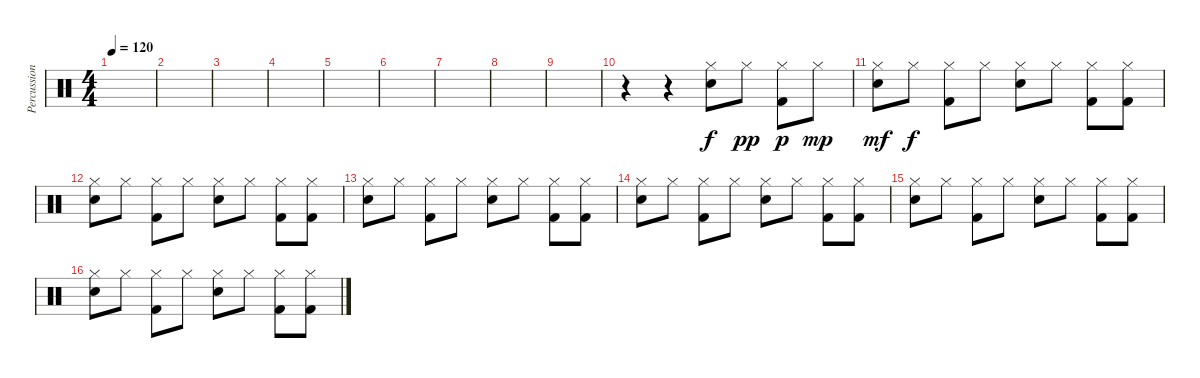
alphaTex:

\track ("Percussion" "Percussion") {instrument percussion}
\staff {score}
\articulation defaults
\ts (4 4)
\tempo 120
\clef neutral
\ks c
|
|
|
|
|
|
|
|
|
r.4 r.4 ("Hi-Hat (closed)" "Snare (hit) 2").8 "Hi-Hat (closed)".8{dy pp} ("Hi-Hat (closed)" "Kick (hit) 2").8{dy p} "Hi-Hat (closed)".8{dy mp} |
("Hi-Hat (closed)" "Snare (hit) 2").8{dy mf} "Hi-Hat (closed)".8{dy f} ("Hi-Hat (closed)" "Kick (hit) 2").8 "Hi-Hat (closed)".8 ("Hi-Hat (closed)" "Snare (hit) 2").8 "Hi-Hat (closed)".8 ("Hi-Hat (closed)" "Kick (hit) 2").8 ("Hi-Hat (closed)" "Kick (hit) 2").8 |
("Hi-Hat (closed)" "Snare (hit) 2").8 "Hi-Hat (closed)".8 ("Hi-Hat (closed)" "Kick (hit) 2").8 "Hi-Hat (closed)".8 ("Hi-Hat (closed)" "Snare (hit) 2").8 "Hi-Hat (closed)".8 ("Hi-Hat (closed)" "Kick (hit) 2").8 ("Hi-Hat (closed)" "Kick (hit) 2").8 |
("Hi-Hat (closed)" "Snare (hit) 2").8 "Hi-Hat (closed)".8 ("Hi-Hat (closed)" "Kick (hit) 2").8 "Hi-Hat (closed)".8 ("Hi-Hat (closed)" "Snare (hit) 2").8 "Hi-Hat (closed)".8 ("Hi-Hat (closed)" "Kick (hit) 2").8 ("Hi-Hat (closed)" "Kick (hit) 2").8 |
("Hi-Hat (closed)" "Snare (hit) 2").8 "Hi-Hat (closed)".8 ("Hi-Hat (closed)" "Kick (hit) 2").8 "Hi-Hat (closed)".8 ("Hi-Hat (closed)" "Snare (hit) 2").8 "Hi-Hat (closed)".8 ("Hi-Hat (closed)" "Kick (hit) 2").8 ("Hi-Hat (closed)" "Kick (hit) 2").8 |
("Hi-Hat (closed)" "Snare (hit) 2").8 "Hi-Hat (closed)".8 ("Hi-Hat (closed)" "Kick (hit) 2").8 "Hi-Hat (closed)".8 ("Hi-Hat (closed)" "Snare (hit) 2").8 "Hi-Hat (closed)".8 ("Hi-Hat (closed)" "Kick (hit) 2").8 ("Hi-Hat (closed)" "Kick (hit) 2").8 |
("Hi-Hat (closed)" "Snare (hit) 2").8 "Hi-Hat (closed)".8 ("Hi-Hat (closed)" "Kick (hit) 2").8 "Hi-Hat (closed)".8 ("Hi-Hat (closed)" "Snare (hit) 2").8 "Hi-Hat (closed)".8 ("Hi-Hat (closed)" "Kick (hit) 2").8 ("Hi-Hat (closed)" "Kick (hit) 2").8
